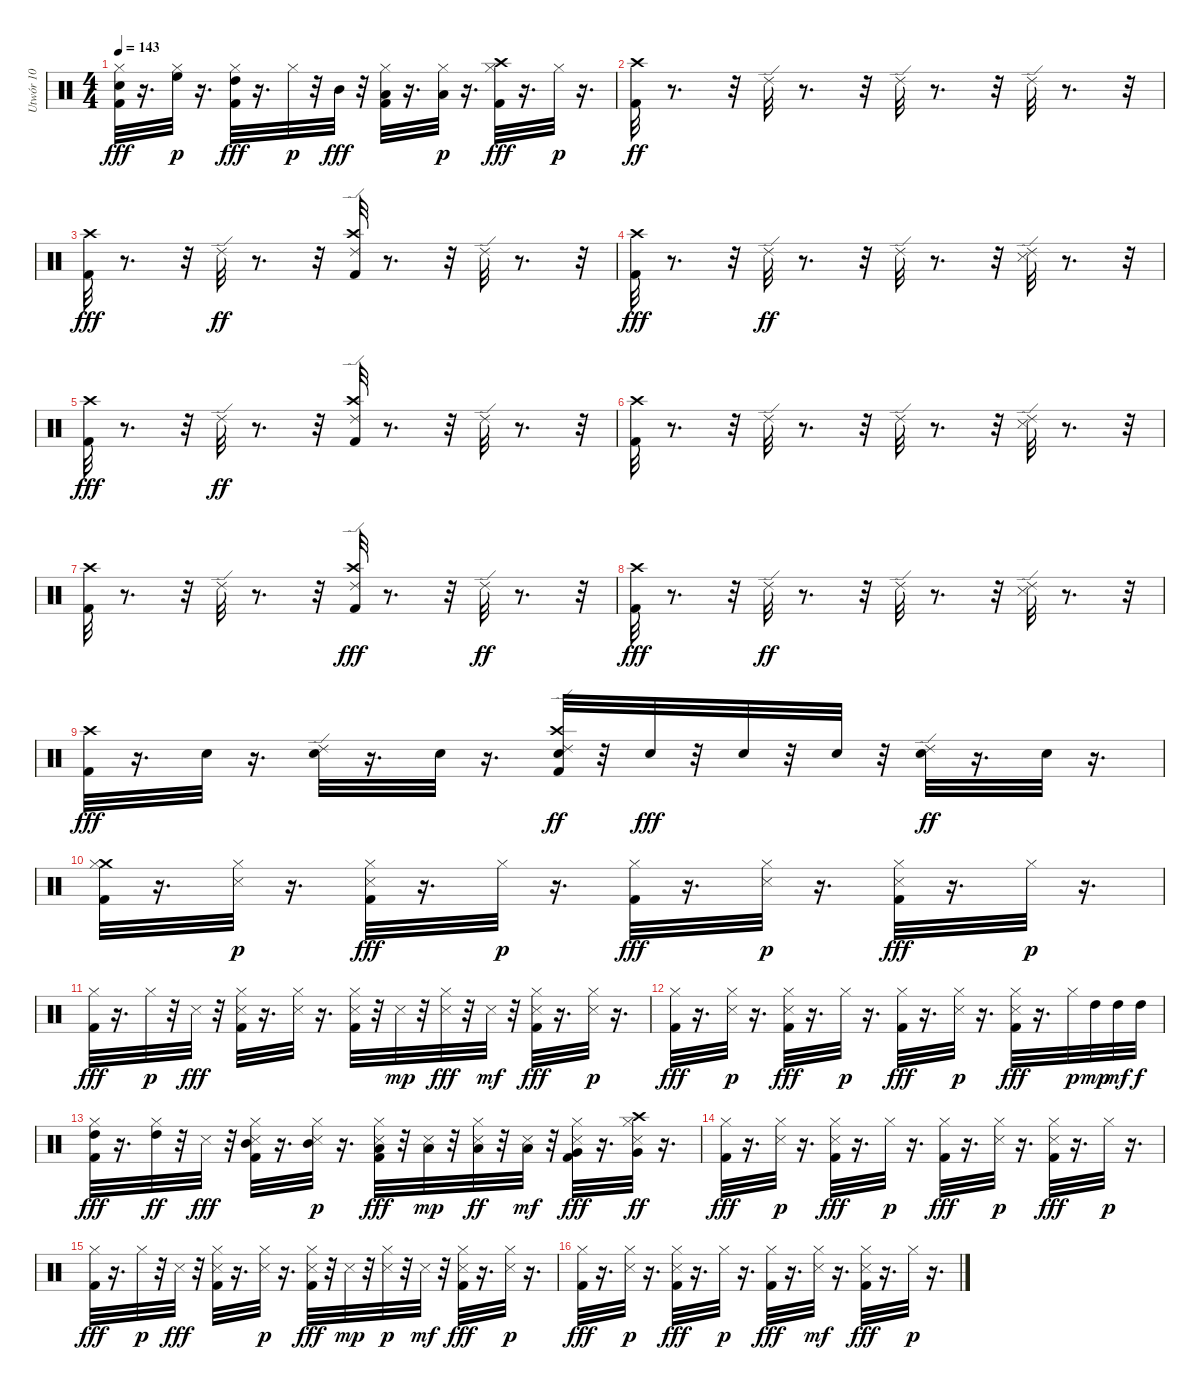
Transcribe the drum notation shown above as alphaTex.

\track ("Utwór 10" "Utwór 10") {instrument percussion}
\staff {score}
\articulation defaults
\ts (4 4)
\tempo 143
\clef neutral
\ks c
("Kick (hit) 2" "Electric Snare (hit)" "Hi-Hat (closed)").32{dy fff} r.16{d} ("High Floor Tom (hit)" "Hi-Hat (closed)").32{dy p} r.16{d} ("Kick (hit) 2" "High Tom (hit)" "Hi-Hat (closed)").32{dy fff} r.16{d} "Hi-Hat (closed)".32{dy p} r.32 "Mid Tom (hit)".32{dy fff} r.32 ("Kick (hit) 2" "Hi-Hat (closed)" "Low Tom (hit)").32 r.16{d} ("Low Tom (hit)" "Hi-Hat (closed)").32{dy p} r.16{d} ("Hi-Hat (closed)" "Crash high (hit)" "Kick (hit) 2").32{dy fff} r.16{d} "Hi-Hat (closed)".32{dy p} r.16{d} |
("Kick (hit) 2" "Crash high (hit)").32{dy ff} r.8{d} r.32 "Ride (edge) 2".32 r.8{d} r.32 "Ride (edge) 2".32 r.8{d} r.32 "Ride (edge) 2".32 r.8{d} r.32 |
("Crash high (hit)" "Kick (hit) 2").32{dy fff} r.8{d} r.32 "Ride (edge) 2".32{dy ff} r.8{d} r.32 ("Crash high (hit)" "Kick (hit) 2" "Ride (edge) 2").32 r.8{d} r.32 "Ride (edge) 2".32 r.8{d} r.32 |
("Crash high (hit)" "Kick (hit) 2").32{dy fff} r.8{d} r.32 "Ride (edge) 2".32{dy ff} r.8{d} r.32 "Ride (edge) 2".32 r.8{d} r.32 ("Snare (side stick) 3" "Ride (edge) 2").32 r.8{d} r.32 |
("Crash high (hit)" "Kick (hit) 2").32{dy fff} r.8{d} r.32 "Ride (edge) 2".32{dy ff} r.8{d} r.32 ("Crash high (hit)" "Kick (hit) 2" "Ride (edge) 2").32 r.8{d} r.32 "Ride (edge) 2".32 r.8{d} r.32 |
("Kick (hit) 2" "Crash high (hit)").32 r.8{d} r.32 "Ride (edge) 2".32 r.8{d} r.32 "Ride (edge) 2".32 r.8{d} r.32 ("Snare (side stick) 3" "Ride (edge) 2").32 r.8{d} r.32 |
("Kick (hit) 2" "Crash high (hit)").32 r.8{d} r.32 "Ride (edge) 2".32 r.8{d} r.32 ("Crash high (hit)" "Ride (edge) 2" "Kick (hit) 2").32{dy fff} r.8{d} r.32 "Ride (edge) 2".32{dy ff} r.8{d} r.32 |
("Crash high (hit)" "Kick (hit) 2").32{dy fff} r.8{d} r.32 "Ride (edge) 2".32{dy ff} r.8{d} r.32 "Ride (edge) 2".32 r.8{d} r.32 ("Snare (side stick) 3" "Ride (edge) 2").32 r.8{d} r.32 |
("Crash high (hit)" "Kick (hit) 2").32{dy fff} r.16{d} "Electric Snare (hit)".32 r.16{d} ("Ride (edge) 2" "Electric Snare (hit)").32 r.16{d} "Electric Snare (hit)".32 r.16{d} ("Crash high (hit)" "Kick (hit) 2" "Electric Snare (hit)" "Ride (edge) 2").32{dy ff} r.32 "Electric Snare (hit)".32{dy fff} r.32 "Electric Snare (hit)".32 r.32 "Electric Snare (hit)".32 r.32 ("Ride (edge) 2" "Electric Snare (hit)").32{dy ff} r.16{d} "Electric Snare (hit)".32 r.16{d} |
("Kick (hit) 2" "Crash medium (hit)" "Hi-Hat (closed)").32 r.16{d} ("Snare (side stick) 3" "Hi-Hat (closed)").32{dy p} r.16{d} ("Kick (hit) 2" "Snare (side stick) 3" "Hi-Hat (closed)").32{dy fff} r.16{d} "Hi-Hat (closed)".32{dy p} r.16{d} ("Hi-Hat (closed)" "Kick (hit) 2").32{dy fff} r.16{d} ("Snare (side stick) 3" "Hi-Hat (closed)").32{dy p} r.16{d} ("Hi-Hat (closed)" "Kick (hit) 2" "Snare (side stick) 3").32{dy fff} r.16{d} "Hi-Hat (closed)".32{dy p} r.16{d} |
("Hi-Hat (closed)" "Kick (hit) 2").32{dy fff} r.16{d} "Hi-Hat (closed)".32{dy p} r.32 "Snare (side stick) 3".32{dy fff} r.32 ("Kick (hit) 2" "Hi-Hat (closed)" "Snare (side stick) 3").32 r.16{d} ("Hi-Hat (closed)" "Snare (side stick) 3").32 r.16{d} ("Hi-Hat (closed)" "Kick (hit) 2" "Snare (side stick) 3").32 r.32 "Snare (side stick) 3".32{dy mp} r.32 ("Hi-Hat (closed)" "Snare (side stick) 3").32{dy fff} r.32 "Snare (side stick) 3".32{dy mf} r.32 ("Kick (hit) 2" "Snare (side stick) 3" "Hi-Hat (closed)").32{dy fff} r.16{d} ("Snare (side stick) 3" "Hi-Hat (closed)").32{dy p} r.16{d} |
("Hi-Hat (closed)" "Kick (hit) 2").32{dy fff} r.16{d} ("Snare (side stick) 3" "Hi-Hat (closed)").32{dy p} r.16{d} ("Snare (side stick) 3" "Kick (hit) 2" "Hi-Hat (closed)").32{dy fff} r.16{d} "Hi-Hat (closed)".32{dy p} r.16{d} ("Kick (hit) 2" "Hi-Hat (closed)").32{dy fff} r.16{d} ("Snare (side stick) 3" "Hi-Hat (closed)").32{dy p} r.16{d} ("Hi-Hat (closed)" "Snare (side stick) 3" "Kick (hit) 2").32{dy fff} r.16{d} "Hi-Hat (closed)".32{dy p} "High Tom (hit)".32{dy mp} "High Tom (hit)".32{dy mf} "High Tom (hit)".32{dy f} |
("Hi-Hat (closed)" "High Tom (hit)" "Kick (hit) 2").32{dy fff} r.16{d} ("Hi-Hat (closed)" "High Tom (hit)").32{dy ff} r.32 "Snare (side stick) 3".32{dy fff} r.32 ("Kick (hit) 2" "Mid Tom (hit)" "Hi-Hat (closed)" "Snare (side stick) 3").32 r.16{d} ("Mid Tom (hit)" "Snare (side stick) 3" "Hi-Hat (closed)").32{dy p} r.16{d} ("Low Tom (hit)" "Hi-Hat (closed)" "Snare (side stick) 3" "Kick (hit) 2").32{dy fff} r.32 ("Low Tom (hit)" "Snare (side stick) 3").32{dy mp} r.32 ("Snare (side stick) 3" "Hi-Hat (closed)" "Low Tom (hit)").32{dy ff} r.32 ("Snare (side stick) 3" "Low Tom (hit)").32{dy mf} r.32 ("Hi-Hat (closed)" "Very Low Tom (hit)" "Snare (side stick) 3" "Kick (hit) 2").32{dy fff} r.16{d} ("Very Low Tom (hit)" "Snare (side stick) 3" "Hi-Hat (closed)" "Crash high (hit)").32{dy ff} r.16{d} |
("Hi-Hat (closed)" "Kick (hit) 2").32{dy fff} r.16{d} ("Snare (side stick) 3" "Hi-Hat (closed)").32{dy p} r.16{d} ("Hi-Hat (closed)" "Snare (side stick) 3" "Kick (hit) 2").32{dy fff} r.16{d} "Hi-Hat (closed)".32{dy p} r.16{d} ("Hi-Hat (closed)" "Kick (hit) 2").32{dy fff} r.16{d} ("Snare (side stick) 3" "Hi-Hat (closed)").32{dy p} r.16{d} ("Kick (hit) 2" "Hi-Hat (closed)" "Snare (side stick) 3").32{dy fff} r.16{d} "Hi-Hat (closed)".32{dy p} r.16{d} |
("Hi-Hat (closed)" "Kick (hit) 2").32{dy fff} r.16{d} "Hi-Hat (closed)".32{dy p} r.32 "Snare (side stick) 3".32{dy fff} r.32 ("Snare (side stick) 3" "Kick (hit) 2" "Hi-Hat (closed)").32 r.16{d} ("Snare (side stick) 3" "Hi-Hat (closed)").32{dy p} r.16{d} ("Hi-Hat (closed)" "Kick (hit) 2" "Snare (side stick) 3").32{dy fff} r.32 "Snare (side stick) 3".32{dy mp} r.32 ("Snare (side stick) 3" "Hi-Hat (closed)").32{dy p} r.32 "Snare (side stick) 3".32{dy mf} r.32 ("Hi-Hat (closed)" "Kick (hit) 2" "Snare (side stick) 3").32{dy fff} r.16{d} ("Snare (side stick) 3" "Hi-Hat (closed)").32{dy p} r.16{d} |
("Hi-Hat (closed)" "Kick (hit) 2").32{dy fff} r.16{d} ("Snare (side stick) 3" "Hi-Hat (closed)").32{dy p} r.16{d} ("Hi-Hat (closed)" "Snare (side stick) 3" "Kick (hit) 2").32{dy fff} r.16{d} "Hi-Hat (closed)".32{dy p} r.16{d} ("Hi-Hat (closed)" "Kick (hit) 2").32{dy fff} r.16{d} ("Hi-Hat (closed)" "Snare (side stick) 3").32{dy mf} r.16{d} ("Kick (hit) 2" "Snare (side stick) 3" "Hi-Hat (closed)").32{dy fff} r.16{d} "Hi-Hat (closed)".32{dy p} r.16{d}
